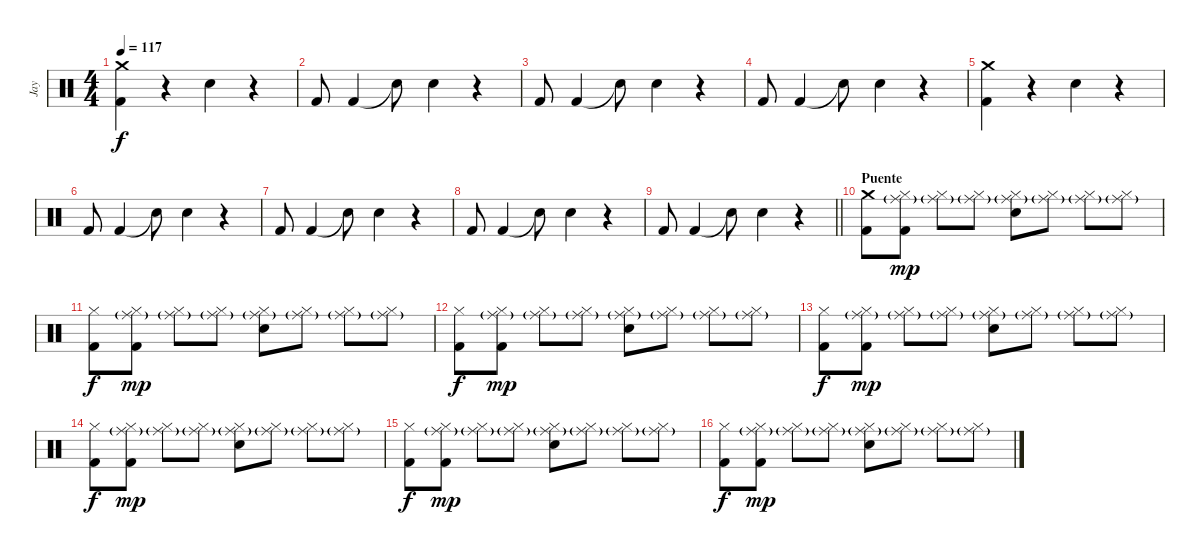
\track ("Jay" "Jay") {instrument percussion}
\staff {score}
\articulation defaults
\ts (4 4)
\tempo 117
\clef neutral
\ks c
("Crash medium (hit)" "Kick (hit) 2").4{dy f} r.4 "Snare (hit) 2".4 r.4 |
"Kick (hit) 2".8 "Kick (hit) 2".4 "Snare (hit) 2"{t}.8 "Snare (hit) 2".4 r.4 |
"Kick (hit) 2".8 "Kick (hit) 2".4 "Snare (hit) 2"{t}.8 "Snare (hit) 2".4 r.4 |
"Kick (hit) 2".8 "Kick (hit) 2".4 "Snare (hit) 2"{t}.8 "Snare (hit) 2".4 r.4 |
("Crash medium (hit)" "Kick (hit) 2").4 r.4 "Snare (hit) 2".4 r.4 |
"Kick (hit) 2".8 "Kick (hit) 2".4 "Snare (hit) 2"{t}.8 "Snare (hit) 2".4 r.4 |
"Kick (hit) 2".8 "Kick (hit) 2".4 "Snare (hit) 2"{t}.8 "Snare (hit) 2".4 r.4 |
"Kick (hit) 2".8 "Kick (hit) 2".4 "Snare (hit) 2"{t}.8 "Snare (hit) 2".4 r.4 |
\barLineRight lightlight "Kick (hit) 2".8 "Kick (hit) 2".4 "Snare (hit) 2"{t}.8 "Snare (hit) 2".4
r.4 |
\section ("" "Puente")
("Crash medium (hit)" "Kick (hit) 2").8 ("Hi-Hat (closed)" "Ride (middle)"{g} "Kick (hit) 2").8{dy mp} ("Hi-Hat (closed)" "Ride (middle)"{g}).8 ("Hi-Hat (closed)" "Ride (middle)"{g}).8 ("Hi-Hat (closed)" "Ride (middle)"{g} "Snare (hit) 2").8 ("Hi-Hat (closed)" "Ride (middle)"{g}).8 ("Hi-Hat (closed)" "Ride (middle)"{g}).8 ("Hi-Hat (closed)" "Ride (middle)"{g}).8 |
("Hi-Hat (closed)" "Kick (hit) 2").8{dy f} ("Hi-Hat (closed)" "Ride (middle)"{g} "Kick (hit) 2").8{dy mp} ("Hi-Hat (closed)" "Ride (middle)"{g}).8 ("Hi-Hat (closed)" "Ride (middle)"{g}).8 ("Hi-Hat (closed)" "Ride (middle)"{g} "Snare (hit) 2").8 ("Hi-Hat (closed)" "Ride (middle)"{g}).8 ("Hi-Hat (closed)" "Ride (middle)"{g}).8 ("Hi-Hat (closed)" "Ride (middle)"{g}).8 |
("Hi-Hat (closed)" "Kick (hit) 2").8{dy f} ("Hi-Hat (closed)" "Ride (middle)"{g} "Kick (hit) 2").8{dy mp} ("Hi-Hat (closed)" "Ride (middle)"{g}).8 ("Hi-Hat (closed)" "Ride (middle)"{g}).8 ("Hi-Hat (closed)" "Ride (middle)"{g} "Snare (hit) 2").8 ("Hi-Hat (closed)" "Ride (middle)"{g}).8 ("Hi-Hat (closed)" "Ride (middle)"{g}).8 ("Hi-Hat (closed)" "Ride (middle)"{g}).8 |
("Hi-Hat (closed)" "Kick (hit) 2").8{dy f} ("Hi-Hat (closed)" "Ride (middle)"{g} "Kick (hit) 2").8{dy mp} ("Hi-Hat (closed)" "Ride (middle)"{g}).8 ("Hi-Hat (closed)" "Ride (middle)"{g}).8 ("Hi-Hat (closed)" "Ride (middle)"{g} "Snare (hit) 2").8 ("Hi-Hat (closed)" "Ride (middle)"{g}).8 ("Hi-Hat (closed)" "Ride (middle)"{g}).8 ("Hi-Hat (closed)" "Ride (middle)"{g}).8 |
("Hi-Hat (closed)" "Kick (hit) 2").8{dy f} ("Hi-Hat (closed)" "Ride (middle)"{g} "Kick (hit) 2").8{dy mp} ("Hi-Hat (closed)" "Ride (middle)"{g}).8 ("Hi-Hat (closed)" "Ride (middle)"{g}).8 ("Hi-Hat (closed)" "Ride (middle)"{g} "Snare (hit) 2").8 ("Hi-Hat (closed)" "Ride (middle)"{g}).8 ("Hi-Hat (closed)" "Ride (middle)"{g}).8 ("Hi-Hat (closed)" "Ride (middle)"{g}).8 |
("Hi-Hat (closed)" "Kick (hit) 2").8{dy f} ("Hi-Hat (closed)" "Ride (middle)"{g} "Kick (hit) 2").8{dy mp} ("Hi-Hat (closed)" "Ride (middle)"{g}).8 ("Hi-Hat (closed)" "Ride (middle)"{g}).8 ("Hi-Hat (closed)" "Ride (middle)"{g} "Snare (hit) 2").8 ("Hi-Hat (closed)" "Ride (middle)"{g}).8 ("Hi-Hat (closed)" "Ride (middle)"{g}).8 ("Hi-Hat (closed)" "Ride (middle)"{g}).8 |
("Hi-Hat (closed)" "Kick (hit) 2").8{dy f} ("Hi-Hat (closed)" "Ride (middle)"{g} "Kick (hit) 2").8{dy mp} ("Hi-Hat (closed)" "Ride (middle)"{g}).8 ("Hi-Hat (closed)" "Ride (middle)"{g}).8 ("Hi-Hat (closed)" "Ride (middle)"{g} "Snare (hit) 2").8 ("Hi-Hat (closed)" "Ride (middle)"{g}).8 ("Hi-Hat (closed)" "Ride (middle)"{g}).8 ("Hi-Hat (closed)" "Ride (middle)"{g}).8
